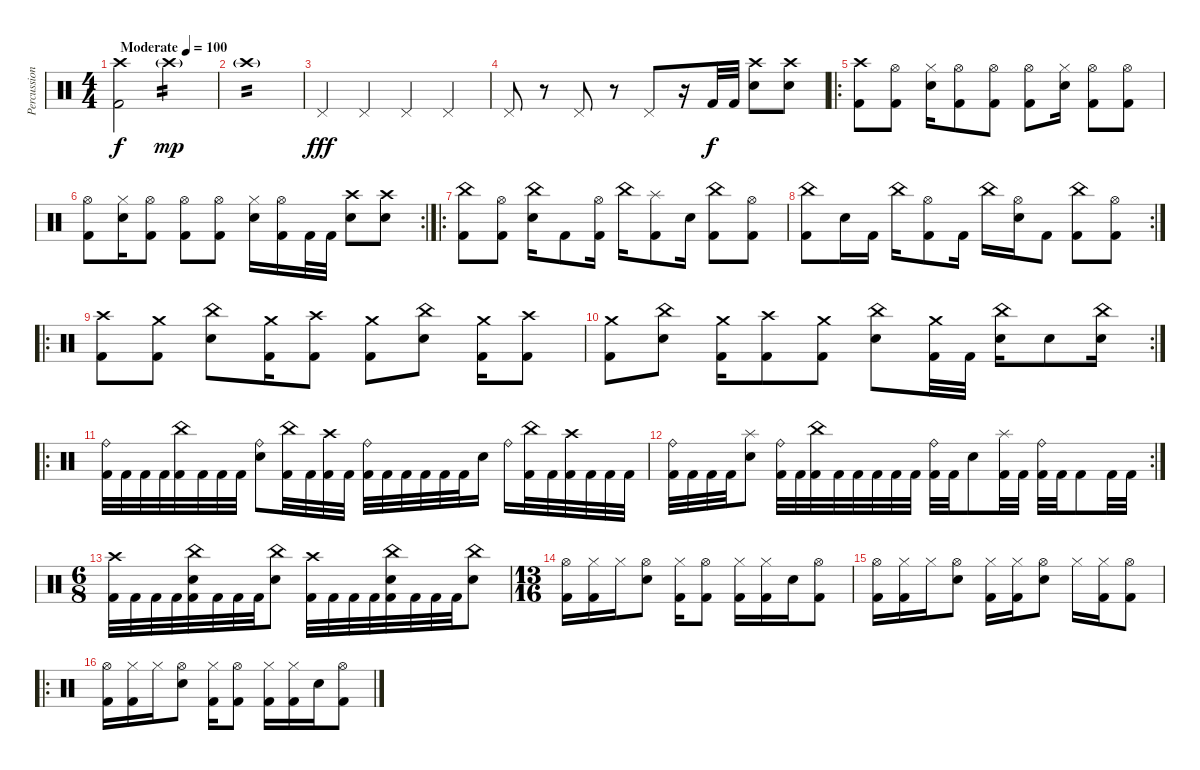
\track ("Percussions" "Percussion") {instrument percussion}
\staff {score}
\articulation defaults
\ts (4 4)
\tempo (100 "Moderate")
\clef neutral
\ks c
("Crash high (hit)" "Kick (hit) 2").2{dy f} "Crash high (hit)"{g}.2{tp 2 dy mp} |
"Crash high (hit)"{g}.1{tp 2} |
"Pedal Hi-Hat (hit)".4{dy fff} "Pedal Hi-Hat (hit)".4 "Pedal Hi-Hat (hit)".4 "Pedal Hi-Hat (hit)".4 |
"Pedal Hi-Hat (hit)".8 r.8 "Pedal Hi-Hat (hit)".8 r.8 "Pedal Hi-Hat (hit)".8 r.16 "Kick (hit) 2".32{dy f} "Kick (hit) 2".32 ("Crash high (hit)" "Electric Snare (hit)").8 ("Crash high (hit)" "Electric Snare (hit)").8 |
\ro
("Crash high (hit)" "Kick (hit) 2").8 ("Hi-Hat (open)" "Kick (hit) 2").8 ("Hi-Hat (closed)" "Electric Snare (hit)").16 ("Hi-Hat (open)" "Kick (hit) 2").8 ("Hi-Hat (open)" "Kick (hit) 2").8 ("Hi-Hat (open)" "Kick (hit) 2").8 ("Hi-Hat (closed)" "Electric Snare (hit)").16 ("Hi-Hat (open)" "Kick (hit) 2").8 ("Hi-Hat (open)" "Kick (hit) 2").8 |
\rc 2
("Hi-Hat (open)" "Kick (hit) 2").8 ("Hi-Hat (closed)" "Electric Snare (hit)").16 ("Hi-Hat (open)" "Kick (hit) 2").8 ("Hi-Hat (open)" "Kick (hit) 2").8 ("Hi-Hat (open)" "Kick (hit) 2").8 ("Hi-Hat (closed)" "Electric Snare (hit)").16 ("Hi-Hat (open)" "Kick (hit) 2").16 "Kick (hit) 2".32 "Kick (hit) 2".32 ("Crash high (hit)" "Electric Snare (hit)").8 ("Crash high (hit)" "Electric Snare (hit)").8 |
\ro
("China (hit)" "Kick (hit) 2").8 ("Hi-Hat (open)" "Kick (hit) 2").8 ("China (hit)" "Electric Snare (hit)").16 "Kick (hit) 2".8 ("Hi-Hat (open)" "Kick (hit) 2").16 "China (hit)".16 ("Splash (hit)" "Kick (hit) 2").8 "Electric Snare (hit)".16 ("China (hit)" "Kick (hit) 2").8 ("Hi-Hat (open)" "Kick (hit) 2").8 |
\rc 2
("China (hit)" "Kick (hit) 2").8 "Electric Snare (hit)".16 "Kick (hit) 2".16 "China (hit)".16 ("Hi-Hat (open)" "Kick (hit) 2").8 "Kick (hit) 2".16 "China (hit)".16 ("Hi-Hat (open)" "Electric Snare (hit)").16 "Kick (hit) 2".8 ("China (hit)" "Kick (hit) 2").8 ("Hi-Hat (open)" "Kick (hit) 2").8 |
\ro
("Crash high (hit)" "Kick (hit) 2").8 ("Crash medium (hit)" "Kick (hit) 2").8 ("China (hit)" "Electric Snare (hit)").8 ("Crash medium (hit)" "Kick (hit) 2").16 ("Crash high (hit)" "Kick (hit) 2").8 ("Crash medium (hit)" "Kick (hit) 2").8 ("China (hit)" "Electric Snare (hit)").8 ("Crash medium (hit)" "Kick (hit) 2").16 ("Crash high (hit)" "Kick (hit) 2").8 |
\rc 2
("Crash medium (hit)" "Kick (hit) 2").8 ("China (hit)" "Electric Snare (hit)").8 ("Crash medium (hit)" "Kick (hit) 2").16 ("Crash high (hit)" "Kick (hit) 2").8 ("Crash medium (hit)" "Kick (hit) 2").8 ("China (hit)" "Electric Snare (hit)").8 ("Crash medium (hit)" "Kick (hit) 2").32 "Kick (hit) 2".32 ("China (hit)" "Electric Snare (hit)").16 "Electric Snare (hit)".8 ("China (hit)" "Electric Snare (hit)").16 |
\ro
("Ride (bell)" "Kick (hit) 2").32 "Kick (hit) 2".32 "Kick (hit) 2".32 "Kick (hit) 2".32 ("China (hit)" "Kick (hit) 2").32 "Kick (hit) 2".32 "Kick (hit) 2".32 "Kick (hit) 2".32 ("Ride (bell)" "Electric Snare (hit)").8 ("China (hit)" "Kick (hit) 2").32 "Kick (hit) 2".32 ("Crash high (hit)" "Kick (hit) 2").32 "Kick (hit) 2".32 ("Ride (bell)" "Kick (hit) 2").32 "Kick (hit) 2".32 "Kick (hit) 2".32 "Kick (hit) 2".32 "Kick (hit) 2".32 "Kick (hit) 2".32 "Electric Snare (hit)".16 "Ride (bell)".16 ("China (hit)" "Kick (hit) 2").32 "Kick (hit) 2".32 ("Crash high (hit)" "Kick (hit) 2").32 "Kick (hit) 2".32 "Kick (hit) 2".32 "Kick (hit) 2".32 |
\rc 2
("Ride (bell)" "Kick (hit) 2").32 "Kick (hit) 2".32 "Kick (hit) 2".32 "Kick (hit) 2".32 ("Splash (hit)" "Electric Snare (hit)").8 ("Ride (bell)" "Kick (hit) 2").32 "Kick (hit) 2".32 ("China (hit)" "Kick (hit) 2").32 "Kick (hit) 2".32 "Kick (hit) 2".32 "Kick (hit) 2".32 "Kick (hit) 2".32 "Kick (hit) 2".32 ("Ride (bell)" "Kick (hit) 2").32 "Kick (hit) 2".32 "Electric Snare (hit)".8 ("Splash (hit)" "Kick (hit) 2").32 "Kick (hit) 2".32 ("Ride (bell)" "Kick (hit) 2").32 "Kick (hit) 2".32 "Kick (hit) 2".8 "Kick (hit) 2".32 "Kick (hit) 2".32 |
\ts (6 8)
("Crash high (hit)" "Kick (hit) 2").32 "Kick (hit) 2".32 "Kick (hit) 2".32 "Kick (hit) 2".32 ("China (hit)" "Electric Snare (hit)" "Kick (hit) 2").32 "Kick (hit) 2".32 "Kick (hit) 2".32 "Kick (hit) 2".32 ("China (hit)" "Electric Snare (hit)").8 ("Crash high (hit)" "Kick (hit) 2").32 "Kick (hit) 2".32 "Kick (hit) 2".32 "Kick (hit) 2".32 ("China (hit)" "Electric Snare (hit)" "Kick (hit) 2").32 "Kick (hit) 2".32 "Kick (hit) 2".32 "Kick (hit) 2".32 ("China (hit)" "Electric Snare (hit)").8 |
\ts (13 16)
("Hi-Hat (open)" "Kick (hit) 2").16 ("Hi-Hat (closed)" "Kick (hit) 2").16 "Hi-Hat (closed)".16 ("Hi-Hat (open)" "Electric Snare (hit)").8 ("Hi-Hat (closed)" "Kick (hit) 2").16 ("Hi-Hat (open)" "Kick (hit) 2").8 ("Hi-Hat (closed)" "Kick (hit) 2").16 ("Hi-Hat (closed)" "Kick (hit) 2").16 "Electric Snare (hit)".16 ("Hi-Hat (open)" "Kick (hit) 2").8 |
("Hi-Hat (open)" "Kick (hit) 2").16 ("Hi-Hat (closed)" "Kick (hit) 2").16 "Hi-Hat (closed)".16 ("Hi-Hat (open)" "Electric Snare (hit)").8 ("Hi-Hat (closed)" "Kick (hit) 2").16 ("Hi-Hat (closed)" "Kick (hit) 2").16 ("Hi-Hat (open)" "Electric Snare (hit)").8 "Hi-Hat (closed)".16 ("Hi-Hat (closed)" "Kick (hit) 2").16 ("Hi-Hat (open)" "Kick (hit) 2").8 |
\ro
("Hi-Hat (open)" "Kick (hit) 2").16 ("Hi-Hat (closed)" "Kick (hit) 2").16 "Hi-Hat (closed)".16 ("Hi-Hat (open)" "Electric Snare (hit)").8 ("Hi-Hat (closed)" "Kick (hit) 2").16 ("Hi-Hat (open)" "Kick (hit) 2").8 ("Hi-Hat (closed)" "Kick (hit) 2").16 ("Hi-Hat (closed)" "Kick (hit) 2").16 "Electric Snare (hit)".16 ("Hi-Hat (open)" "Kick (hit) 2").8
